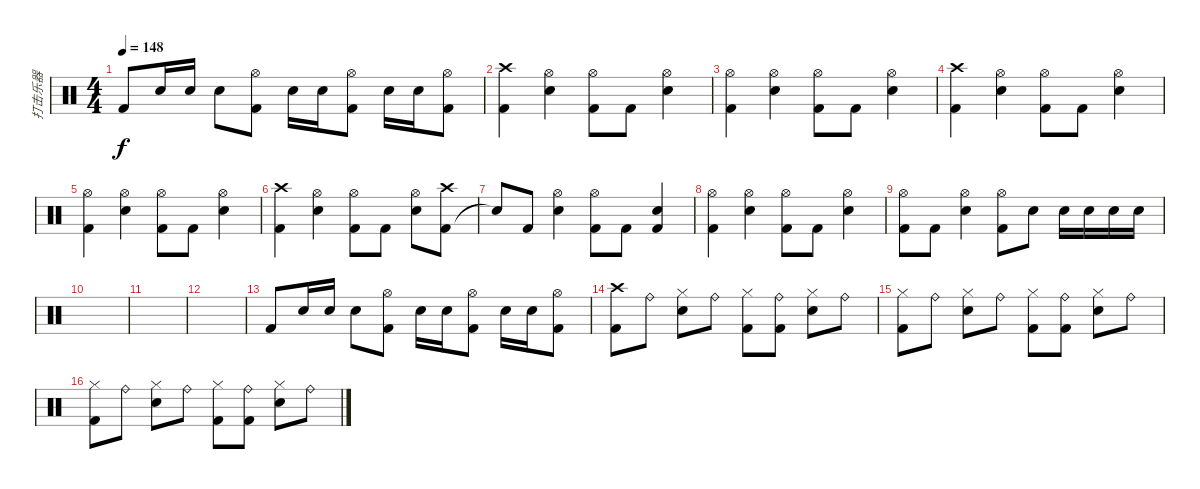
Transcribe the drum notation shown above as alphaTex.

\track ("打击乐器" "打击乐器") {instrument percussion}
\staff {score}
\articulation defaults
\ts (4 4)
\tempo 148
\clef neutral
\ks c "Kick (hit) 2".8{dy f} "Electric Snare (hit)".16 "Electric Snare (hit)".16 "Electric Snare (hit)".8
("Kick (hit) 2" "Hi-Hat (open)").8 "Electric Snare (hit)".16 "Electric Snare (hit)".16 ("Kick (hit) 2" "Hi-Hat (open)").8 "Electric Snare (hit)".16 "Electric Snare (hit)".16 ("Kick (hit) 2" "Hi-Hat (open)").8 |
("Kick (hit) 2" "Crash high (hit)").4 ("Electric Snare (hit)" "Hi-Hat (open)").4 ("Kick (hit) 2" "Hi-Hat (open)").8 "Kick (hit) 2".8 ("Electric Snare (hit)" "Hi-Hat (open)").4 |
("Kick (hit) 2" "Hi-Hat (open)").4 ("Electric Snare (hit)" "Hi-Hat (open)").4 ("Kick (hit) 2" "Hi-Hat (open)").8 "Kick (hit) 2".8 ("Electric Snare (hit)" "Hi-Hat (open)").4 |
("Kick (hit) 2" "Crash high (hit)").4 ("Electric Snare (hit)" "Hi-Hat (open)").4 ("Kick (hit) 2" "Hi-Hat (open)").8 "Kick (hit) 2".8 ("Electric Snare (hit)" "Hi-Hat (open)").4 |
("Kick (hit) 2" "Hi-Hat (open)").4 ("Electric Snare (hit)" "Hi-Hat (open)").4 ("Kick (hit) 2" "Hi-Hat (open)").8 "Kick (hit) 2".8 ("Electric Snare (hit)" "Hi-Hat (open)").4 |
("Kick (hit) 2" "Crash high (hit)").4 ("Electric Snare (hit)" "Hi-Hat (open)").4 ("Kick (hit) 2" "Hi-Hat (open)").8 "Kick (hit) 2".8 ("Electric Snare (hit)" "Hi-Hat (open)").8 ("Kick (hit) 2" "Crash high (hit)").8 |
"Snare (hit)"{t}.8 "Kick (hit) 2".8 ("Electric Snare (hit)" "Hi-Hat (open)").4 ("Kick (hit) 2" "Hi-Hat (open)").8 "Kick (hit) 2".8 ("Electric Snare (hit)" "Kick (hit) 2").4 |
("Kick (hit) 2" "Hi-Hat (open)").4 ("Electric Snare (hit)" "Hi-Hat (open)").4 ("Kick (hit) 2" "Hi-Hat (open)").8 "Kick (hit) 2".8 ("Electric Snare (hit)" "Hi-Hat (open)").4 |
("Hi-Hat (open)" "Kick (hit) 2").8 "Kick (hit) 2".8 ("Hi-Hat (open)" "Electric Snare (hit)").4 ("Hi-Hat (open)" "Kick (hit) 2").8 "Electric Snare (hit)".8 "Electric Snare (hit)".16 "Electric Snare (hit)".16 "Electric Snare (hit)".16 "Electric Snare (hit)".16 |
|
|
|
"Kick (hit) 2".8 "Electric Snare (hit)".16 "Electric Snare (hit)".16 "Electric Snare (hit)".8 ("Kick (hit) 2" "Hi-Hat (open)").8 "Electric Snare (hit)".16 "Electric Snare (hit)".16 ("Kick (hit) 2" "Hi-Hat (open)").8 "Electric Snare (hit)".16 "Electric Snare (hit)".16 ("Kick (hit) 2" "Hi-Hat (open)").8 |
("Crash high (hit)" "Kick (hit) 2").8 "Ride (bell)".8 ("Hi-Hat (closed)" "Electric Snare (hit)").8 "Ride (bell)".8 ("Hi-Hat (closed)" "Kick (hit) 2").8 ("Ride (bell)" "Kick (hit) 2").8 ("Hi-Hat (closed)" "Electric Snare (hit)").8 "Ride (bell)".8 |
("Hi-Hat (closed)" "Kick (hit) 2").8 "Ride (bell)".8 ("Hi-Hat (closed)" "Electric Snare (hit)").8 "Ride (bell)".8 ("Hi-Hat (closed)" "Kick (hit) 2").8 ("Ride (bell)" "Kick (hit) 2").8 ("Hi-Hat (closed)" "Electric Snare (hit)").8 "Ride (bell)".8 |
("Hi-Hat (closed)" "Kick (hit) 2").8 "Ride (bell)".8 ("Hi-Hat (closed)" "Electric Snare (hit)").8 "Ride (bell)".8 ("Hi-Hat (closed)" "Kick (hit) 2").8 ("Ride (bell)" "Kick (hit) 2").8 ("Hi-Hat (closed)" "Electric Snare (hit)").8 "Ride (bell)".8
